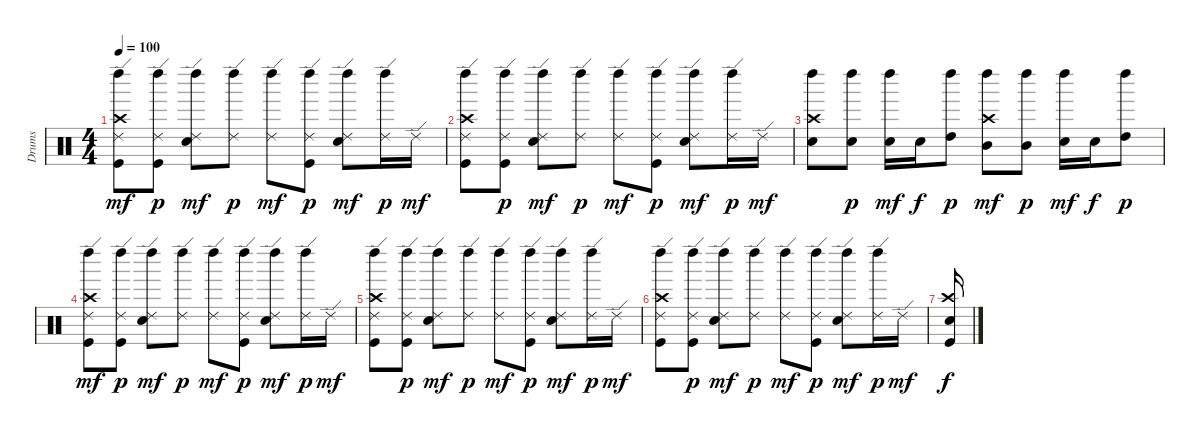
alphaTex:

\track ("Drums" "Drums") {instrument percussion}
\staff {score}
\articulation defaults
\ts (4 4)
\tempo 100
\clef neutral
\ks c
("Kick (hit)" "Crash high (hit)" "Ride (edge) 2" "Left Maraca (hit)").8{dy mf} ("Kick (hit)" "Ride (edge) 2" "Left Maraca (hit)").8{dy p} ("Electric Snare (hit)" "Ride (edge) 2" "Left Maraca (hit)").8{dy mf} ("Ride (edge) 2" "Left Maraca (hit)").8{dy p} ("Ride (edge) 2" "Left Maraca (hit)").8{dy mf} ("Kick (hit)" "Ride (edge) 2" "Left Maraca (hit)").8{dy p} ("Electric Snare (hit)" "Ride (edge) 2" "Left Maraca (hit)").8{dy mf} ("Ride (edge) 2" "Left Maraca (hit)").16{dy p} "Ride (edge) 2".16{dy mf} |
("Kick (hit)" "Crash high (hit)" "Ride (edge) 2" "Left Maraca (hit)").8 ("Kick (hit)" "Ride (edge) 2" "Left Maraca (hit)").8{dy p} ("Electric Snare (hit)" "Ride (edge) 2" "Left Maraca (hit)").8{dy mf} ("Ride (edge) 2" "Left Maraca (hit)").8{dy p} ("Ride (edge) 2" "Left Maraca (hit)").8{dy mf} ("Kick (hit)" "Ride (edge) 2" "Left Maraca (hit)").8{dy p} ("Electric Snare (hit)" "Ride (edge) 2" "Left Maraca (hit)").8{dy mf} ("Ride (edge) 2" "Left Maraca (hit)").16{dy p} "Ride (edge) 2".16{dy mf} |
("Crash high (hit)" "Electric Snare (hit)" "Left Maraca (hit)").8 ("Electric Snare (hit)" "Left Maraca (hit)").8{dy p} ("Electric Snare (hit)" "Left Maraca (hit)").16{dy mf} "Electric Snare (hit)".16{dy f} ("High Tom (hit)" "Left Maraca (hit)").8{dy p} ("Crash high (hit)" "Mid Tom (hit)" "Left Maraca (hit)").8{dy mf} ("Mid Tom (hit)" "Left Maraca (hit)").8{dy p} ("Electric Snare (hit)" "Left Maraca (hit)").16{dy mf} "Electric Snare (hit)".16{dy f} ("High Tom (hit)" "Left Maraca (hit)").8{dy p} |
("Kick (hit)" "Crash high (hit)" "Ride (edge) 2" "Left Maraca (hit)").8{dy mf} ("Kick (hit)" "Ride (edge) 2" "Left Maraca (hit)").8{dy p} ("Electric Snare (hit)" "Ride (edge) 2" "Left Maraca (hit)").8{dy mf} ("Ride (edge) 2" "Left Maraca (hit)").8{dy p} ("Ride (edge) 2" "Left Maraca (hit)").8{dy mf} ("Kick (hit)" "Ride (edge) 2" "Left Maraca (hit)").8{dy p} ("Electric Snare (hit)" "Ride (edge) 2" "Left Maraca (hit)").8{dy mf} ("Ride (edge) 2" "Left Maraca (hit)").16{dy p} "Ride (edge) 2".16{dy mf} |
("Kick (hit)" "Crash high (hit)" "Ride (edge) 2" "Left Maraca (hit)").8 ("Kick (hit)" "Ride (edge) 2" "Left Maraca (hit)").8{dy p} ("Electric Snare (hit)" "Ride (edge) 2" "Left Maraca (hit)").8{dy mf} ("Ride (edge) 2" "Left Maraca (hit)").8{dy p} ("Ride (edge) 2" "Left Maraca (hit)").8{dy mf} ("Kick (hit)" "Ride (edge) 2" "Left Maraca (hit)").8{dy p} ("Electric Snare (hit)" "Ride (edge) 2" "Left Maraca (hit)").8{dy mf} ("Ride (edge) 2" "Left Maraca (hit)").16{dy p} "Ride (edge) 2".16{dy mf} |
("Kick (hit)" "Crash high (hit)" "Ride (edge) 2" "Left Maraca (hit)").8 ("Kick (hit)" "Ride (edge) 2" "Left Maraca (hit)").8{dy p} ("Electric Snare (hit)" "Ride (edge) 2" "Left Maraca (hit)").8{dy mf} ("Ride (edge) 2" "Left Maraca (hit)").8{dy p} ("Ride (edge) 2" "Left Maraca (hit)").8{dy mf} ("Kick (hit)" "Ride (edge) 2" "Left Maraca (hit)").8{dy p} ("Electric Snare (hit)" "Ride (edge) 2" "Left Maraca (hit)").8{dy mf} ("Ride (edge) 2" "Left Maraca (hit)").16{dy p} "Ride (edge) 2".16{dy mf} |
("Crash high (hit)" "Kick (hit)" "Electric Snare (hit)").16{dy f}
